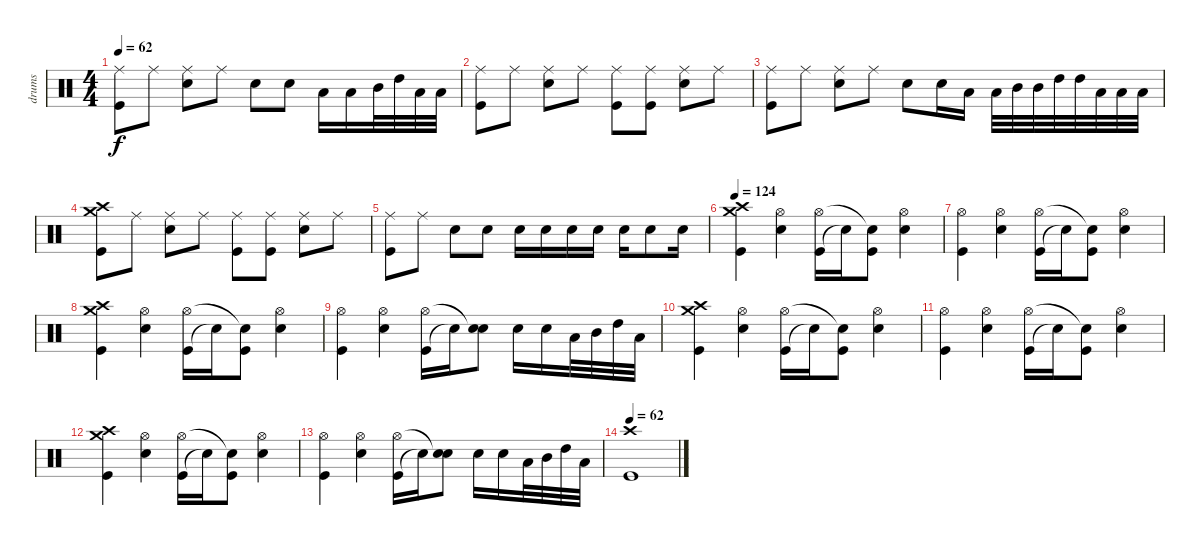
\track ("drums" "drums") {instrument percussion}
\staff {score}
\articulation defaults
\ts (4 4)
\tempo 62
\clef neutral
\ks c
("Kick (hit)" "Ride (middle)").8{dy f} "Ride (middle)".8 ("Snare (hit) 2" "Ride (middle)").8 "Ride (middle)".8 "Snare (hit) 2".8 "Snare (hit) 2".8 "Low Tom (hit)".16 "Low Tom (hit)".16 "Mid Tom (hit)".32 "High Tom (hit)".32 "Low Floor Tom (hit)".32 "Low Floor Tom (hit)".32 |
("Kick (hit)" "Ride (middle)").8 "Ride (middle)".8 ("Snare (hit) 2" "Ride (middle)").8 "Ride (middle)".8 ("Kick (hit)" "Ride (middle)").8 ("Kick (hit)" "Ride (middle)").8 ("Snare (hit) 2" "Ride (middle)").8 "Ride (middle)".8 |
("Kick (hit)" "Ride (middle)").8 "Ride (middle)".8 ("Snare (hit) 2" "Ride (middle)").8 "Ride (middle)".8 "Snare (hit) 2".8 "Snare (hit) 2".16 "Low Tom (hit)".16 "Low Tom (hit)".32 "Mid Tom (hit)".32 "Mid Tom (hit)".32 "High Tom (hit)".32 "High Tom (hit)".32 "Low Floor Tom (hit)".32 "Low Floor Tom (hit)".32 "Low Floor Tom (hit)".32 |
("Kick (hit)" "Crash medium (hit)" "Crash high (hit)").8 "Ride (middle)".8 ("Snare (hit) 2" "Ride (middle)").8 "Ride (middle)".8 ("Kick (hit)" "Ride (middle)").8 ("Kick (hit)" "Ride (middle)").8 ("Snare (hit) 2" "Ride (middle)").8 "Ride (middle)".8 |
("Kick (hit)" "Ride (middle)").8 "Ride (middle)".8 "Snare (hit) 2".8 "Snare (hit) 2".8 "Snare (hit) 2".16 "Snare (hit) 2".16 "Snare (hit) 2".16 "Snare (hit) 2".16 "Snare (hit) 2".16 "Snare (hit) 2".8 "Snare (hit) 2".16 |
\tempo 124
("Kick (hit)" "Crash medium (hit)" "Crash high (hit)").4 ("Snare (hit) 2" "Hi-Hat (open)").4 ("Kick (hit)" "Hi-Hat (open)").16 "Snare (hit)"{t}.16 ("Kick (hit)" "Snare (hit)"{t}).8 ("Snare (hit) 2" "Hi-Hat (open)").4 |
("Kick (hit)" "Hi-Hat (open)").4 ("Snare (hit) 2" "Hi-Hat (open)").4 ("Kick (hit)" "Hi-Hat (open)").16 "Snare (hit)"{t}.16 ("Kick (hit)" "Snare (hit)"{t}).8 ("Snare (hit) 2" "Hi-Hat (open)").4 |
("Kick (hit)" "Crash medium (hit)" "Crash high (hit)").4 ("Snare (hit) 2" "Hi-Hat (open)").4 ("Kick (hit)" "Hi-Hat (open)").16 "Snare (hit)"{t}.16 ("Kick (hit)" "Snare (hit)"{t}).8 ("Snare (hit) 2" "Hi-Hat (open)").4 |
("Kick (hit)" "Hi-Hat (open)").4 ("Snare (hit) 2" "Hi-Hat (open)").4 ("Kick (hit)" "Hi-Hat (open)").16 "Snare (hit)"{t}.16 ("Snare (hit) 2" "Snare (hit)"{t}).8 "Snare (hit) 2".16 "Snare (hit) 2".16 "Low Tom (hit)".32 "Mid Tom (hit)".32 "High Tom (hit)".32 "Low Floor Tom (hit)".32 |
("Kick (hit)" "Crash medium (hit)" "Crash high (hit)").4 ("Snare (hit) 2" "Hi-Hat (open)").4 ("Kick (hit)" "Hi-Hat (open)").16 "Snare (hit)"{t}.16 ("Kick (hit)" "Snare (hit)"{t}).8 ("Snare (hit) 2" "Hi-Hat (open)").4 |
("Kick (hit)" "Hi-Hat (open)").4 ("Snare (hit) 2" "Hi-Hat (open)").4 ("Kick (hit)" "Hi-Hat (open)").16 "Snare (hit)"{t}.16 ("Kick (hit)" "Snare (hit)"{t}).8 ("Snare (hit) 2" "Hi-Hat (open)").4 |
("Kick (hit)" "Crash medium (hit)" "Crash high (hit)").4 ("Snare (hit) 2" "Hi-Hat (open)").4 ("Kick (hit)" "Hi-Hat (open)").16 "Snare (hit)"{t}.16 ("Kick (hit)" "Snare (hit)"{t}).8 ("Snare (hit) 2" "Hi-Hat (open)").4 |
("Kick (hit)" "Hi-Hat (open)").4 ("Snare (hit) 2" "Hi-Hat (open)").4 ("Kick (hit)" "Hi-Hat (open)").16 "Snare (hit)"{t}.16 ("Snare (hit) 2" "Snare (hit)"{t}).8 "Snare (hit) 2".16 "Snare (hit) 2".16 "Low Tom (hit)".32 "Mid Tom (hit)".32 "High Tom (hit)".32 "Low Floor Tom (hit)".32 |
\tempo 62
("Kick (hit)" "Crash high (hit)").1
